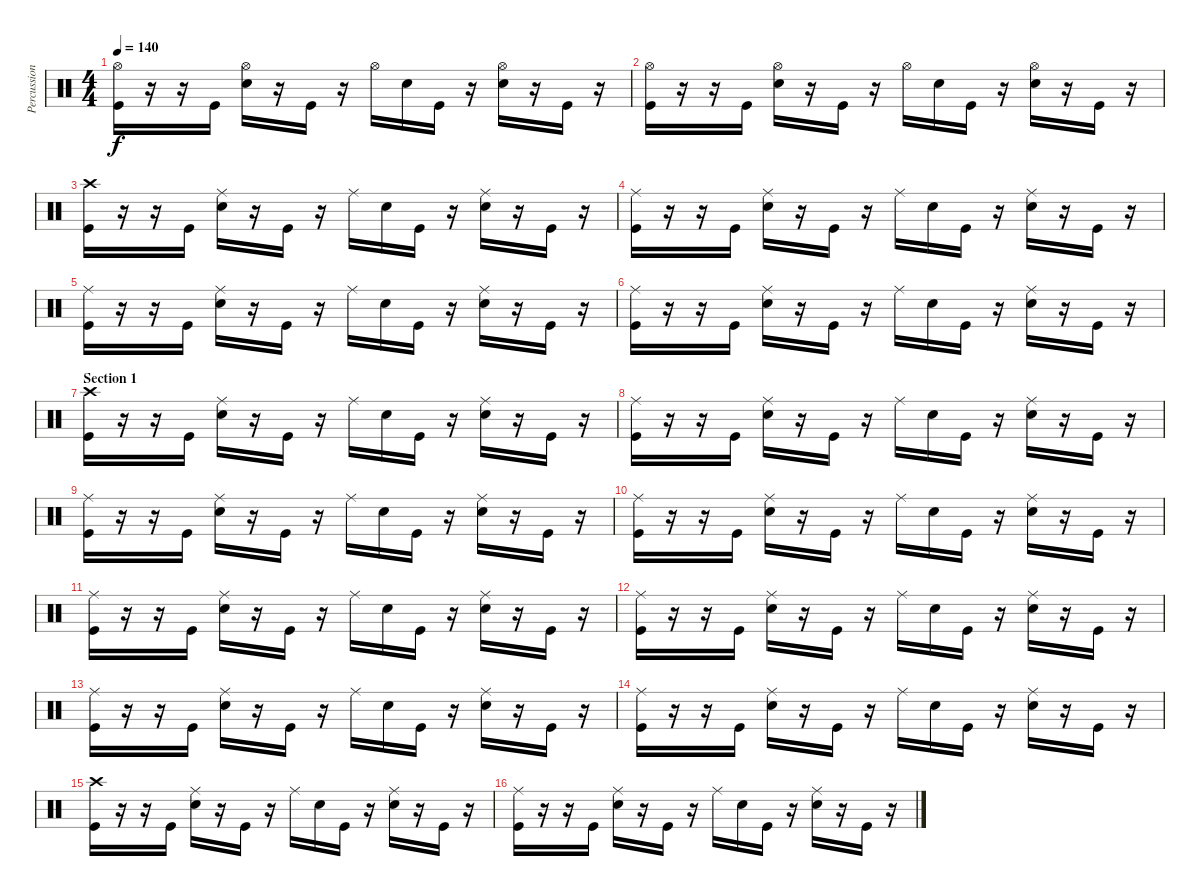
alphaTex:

\track ("Percussion" "Percussion") {instrument percussion}
\staff {score}
\articulation defaults
\ts (4 4)
\tempo 140
\clef neutral
\ks c
("Hi-Hat (open)" "Kick (hit)").16{dy f} r.16 r.16 "Kick (hit)".16 ("Hi-Hat (open)" "Electric Snare (hit)").16 r.16 "Kick (hit)".16 r.16 "Hi-Hat (open)".16 "Electric Snare (hit)".16 "Kick (hit)".16 r.16 ("Hi-Hat (open)" "Electric Snare (hit)").16 r.16 "Kick (hit)".16 r.16 |
("Hi-Hat (open)" "Kick (hit)").16 r.16 r.16 "Kick (hit)".16 ("Hi-Hat (open)" "Electric Snare (hit)").16 r.16 "Kick (hit)".16 r.16 "Hi-Hat (open)".16 "Electric Snare (hit)".16 "Kick (hit)".16 r.16 ("Hi-Hat (open)" "Electric Snare (hit)").16 r.16 "Kick (hit)".16 r.16 |
("Crash high (hit)" "Kick (hit)").16 r.16 r.16 "Kick (hit)".16 ("Ride (middle)" "Electric Snare (hit)").16 r.16 "Kick (hit)".16 r.16 "Ride (middle)".16 "Electric Snare (hit)".16 "Kick (hit)".16 r.16 ("Ride (middle)" "Electric Snare (hit)").16 r.16 "Kick (hit)".16 r.16 |
("Ride (middle)" "Kick (hit)").16 r.16 r.16 "Kick (hit)".16 ("Ride (middle)" "Electric Snare (hit)").16 r.16 "Kick (hit)".16 r.16 "Ride (middle)".16 "Electric Snare (hit)".16 "Kick (hit)".16 r.16 ("Ride (middle)" "Electric Snare (hit)").16 r.16 "Kick (hit)".16 r.16 |
("Ride (middle)" "Kick (hit)").16 r.16 r.16 "Kick (hit)".16 ("Ride (middle)" "Electric Snare (hit)").16 r.16 "Kick (hit)".16 r.16 "Ride (middle)".16 "Electric Snare (hit)".16 "Kick (hit)".16 r.16 ("Ride (middle)" "Electric Snare (hit)").16 r.16 "Kick (hit)".16 r.16 |
("Ride (middle)" "Kick (hit)").16 r.16 r.16 "Kick (hit)".16 ("Ride (middle)" "Electric Snare (hit)").16 r.16 "Kick (hit)".16 r.16 "Ride (middle)".16 "Electric Snare (hit)".16 "Kick (hit)".16 r.16 ("Ride (middle)" "Electric Snare (hit)").16 r.16 "Kick (hit)".16 r.16 |
\section ("" "Section 1")
("Crash high (hit)" "Kick (hit)").16 r.16 r.16 "Kick (hit)".16 ("Ride (middle)" "Electric Snare (hit)").16 r.16 "Kick (hit)".16 r.16 "Ride (middle)".16 "Electric Snare (hit)".16 "Kick (hit)".16 r.16 ("Ride (middle)" "Electric Snare (hit)").16 r.16 "Kick (hit)".16 r.16 |
("Ride (middle)" "Kick (hit)").16 r.16 r.16 "Kick (hit)".16 ("Ride (middle)" "Electric Snare (hit)").16 r.16 "Kick (hit)".16 r.16 "Ride (middle)".16 "Electric Snare (hit)".16 "Kick (hit)".16 r.16 ("Ride (middle)" "Electric Snare (hit)").16 r.16 "Kick (hit)".16 r.16 |
("Ride (middle)" "Kick (hit)").16 r.16 r.16 "Kick (hit)".16 ("Ride (middle)" "Electric Snare (hit)").16 r.16 "Kick (hit)".16 r.16 "Ride (middle)".16 "Electric Snare (hit)".16 "Kick (hit)".16 r.16 ("Ride (middle)" "Electric Snare (hit)").16 r.16 "Kick (hit)".16 r.16 |
("Ride (middle)" "Kick (hit)").16 r.16 r.16 "Kick (hit)".16 ("Ride (middle)" "Electric Snare (hit)").16 r.16 "Kick (hit)".16 r.16 "Ride (middle)".16 "Electric Snare (hit)".16 "Kick (hit)".16 r.16 ("Ride (middle)" "Electric Snare (hit)").16 r.16 "Kick (hit)".16 r.16 |
("Ride (middle)" "Kick (hit)").16 r.16 r.16 "Kick (hit)".16 ("Ride (middle)" "Electric Snare (hit)").16 r.16 "Kick (hit)".16 r.16 "Ride (middle)".16 "Electric Snare (hit)".16 "Kick (hit)".16 r.16 ("Ride (middle)" "Electric Snare (hit)").16 r.16 "Kick (hit)".16 r.16 |
("Ride (middle)" "Kick (hit)").16 r.16 r.16 "Kick (hit)".16 ("Ride (middle)" "Electric Snare (hit)").16 r.16 "Kick (hit)".16 r.16 "Ride (middle)".16 "Electric Snare (hit)".16 "Kick (hit)".16 r.16 ("Ride (middle)" "Electric Snare (hit)").16 r.16 "Kick (hit)".16 r.16 |
("Ride (middle)" "Kick (hit)").16 r.16 r.16 "Kick (hit)".16 ("Ride (middle)" "Electric Snare (hit)").16 r.16 "Kick (hit)".16 r.16 "Ride (middle)".16 "Electric Snare (hit)".16 "Kick (hit)".16 r.16 ("Ride (middle)" "Electric Snare (hit)").16 r.16 "Kick (hit)".16 r.16 |
("Ride (middle)" "Kick (hit)").16 r.16 r.16 "Kick (hit)".16 ("Ride (middle)" "Electric Snare (hit)").16 r.16 "Kick (hit)".16 r.16 "Ride (middle)".16 "Electric Snare (hit)".16 "Kick (hit)".16 r.16 ("Ride (middle)" "Electric Snare (hit)").16 r.16 "Kick (hit)".16 r.16 |
("Crash high (hit)" "Kick (hit)").16 r.16 r.16 "Kick (hit)".16 ("Ride (middle)" "Electric Snare (hit)").16 r.16 "Kick (hit)".16 r.16 "Ride (middle)".16 "Electric Snare (hit)".16 "Kick (hit)".16 r.16 ("Ride (middle)" "Electric Snare (hit)").16 r.16 "Kick (hit)".16 r.16 |
("Ride (middle)" "Kick (hit)").16 r.16 r.16 "Kick (hit)".16 ("Ride (middle)" "Electric Snare (hit)").16 r.16 "Kick (hit)".16 r.16 "Ride (middle)".16 "Electric Snare (hit)".16 "Kick (hit)".16 r.16 ("Ride (middle)" "Electric Snare (hit)").16 r.16 "Kick (hit)".16 r.16
